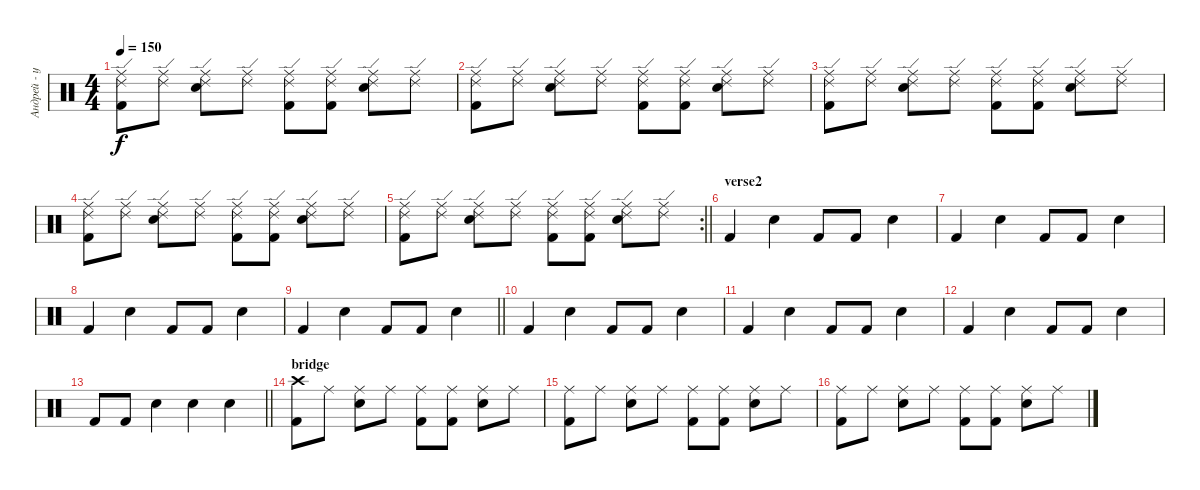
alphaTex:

\track ("Андрей - ударные" "Андрей - у") {instrument percussion}
\staff
\articulation defaults
\ts (4 4)
\tempo 150
\clef neutral
\ks c
("Ride (middle)" "Ride (edge) 2" "Kick (hit) 2").8{dy f} ("Ride (middle)" "Ride (edge) 2").8 ("Ride (middle)" "Ride (edge) 2" "Electric Snare (hit)").8 ("Ride (middle)" "Ride (edge) 2").8 ("Ride (middle)" "Ride (edge) 2" "Kick (hit) 2").8 ("Ride (middle)" "Ride (edge) 2" "Kick (hit) 2").8 ("Ride (middle)" "Ride (edge) 2" "Electric Snare (hit)").8 ("Ride (middle)" "Ride (edge) 2").8 |
("Ride (middle)" "Ride (edge) 2" "Kick (hit) 2").8 ("Ride (middle)" "Ride (edge) 2").8 ("Ride (middle)" "Ride (edge) 2" "Electric Snare (hit)").8 ("Ride (middle)" "Ride (edge) 2").8 ("Ride (middle)" "Ride (edge) 2" "Kick (hit) 2").8 ("Ride (middle)" "Ride (edge) 2" "Kick (hit) 2").8 ("Ride (middle)" "Ride (edge) 2" "Electric Snare (hit)").8 ("Ride (middle)" "Ride (edge) 2").8 |
("Ride (middle)" "Ride (edge) 2" "Kick (hit) 2").8 ("Ride (middle)" "Ride (edge) 2").8 ("Ride (middle)" "Ride (edge) 2" "Electric Snare (hit)").8 ("Ride (middle)" "Ride (edge) 2").8 ("Ride (middle)" "Ride (edge) 2" "Kick (hit) 2").8 ("Ride (middle)" "Ride (edge) 2" "Kick (hit) 2").8 ("Ride (middle)" "Ride (edge) 2" "Electric Snare (hit)").8 ("Ride (middle)" "Ride (edge) 2").8 |
("Ride (middle)" "Ride (edge) 2" "Kick (hit) 2").8 ("Ride (middle)" "Ride (edge) 2").8 ("Ride (middle)" "Ride (edge) 2" "Electric Snare (hit)").8 ("Ride (middle)" "Ride (edge) 2").8 ("Ride (middle)" "Ride (edge) 2" "Kick (hit) 2").8 ("Ride (middle)" "Ride (edge) 2" "Kick (hit) 2").8 ("Ride (middle)" "Ride (edge) 2" "Electric Snare (hit)").8 ("Ride (middle)" "Ride (edge) 2").8 |
\rc 2
\barLineRight lightlight
("Ride (middle)" "Ride (edge) 2" "Kick (hit) 2").8 ("Ride (middle)" "Ride (edge) 2").8 ("Ride (middle)" "Ride (edge) 2" "Electric Snare (hit)").8 ("Ride (middle)" "Ride (edge) 2").8 ("Ride (middle)" "Ride (edge) 2" "Kick (hit) 2").8 ("Ride (middle)" "Ride (edge) 2" "Kick (hit) 2").8 ("Ride (middle)" "Ride (edge) 2" "Electric Snare (hit)").8 ("Ride (middle)" "Ride (edge) 2").8 |
\section ("" "verse2")
"Kick (hit) 2".4 "Electric Snare (hit)".4 "Kick (hit) 2".8 "Kick (hit) 2".8 "Electric Snare (hit)".4 |
"Kick (hit) 2".4 "Electric Snare (hit)".4 "Kick (hit) 2".8 "Kick (hit) 2".8 "Electric Snare (hit)".4 |
"Kick (hit) 2".4 "Electric Snare (hit)".4 "Kick (hit) 2".8 "Kick (hit) 2".8 "Electric Snare (hit)".4 |
\barLineRight lightlight "Kick (hit) 2".4 "Electric Snare (hit)".4 "Kick (hit) 2".8 "Kick (hit) 2".8 "Electric Snare (hit)".4
|
"Kick (hit) 2".4 "Electric Snare (hit)".4 "Kick (hit) 2".8 "Kick (hit) 2".8 "Electric Snare (hit)".4 |
"Kick (hit) 2".4 "Electric Snare (hit)".4 "Kick (hit) 2".8 "Kick (hit) 2".8 "Electric Snare (hit)".4 |
"Kick (hit) 2".4 "Electric Snare (hit)".4 "Kick (hit) 2".8 "Kick (hit) 2".8 "Electric Snare (hit)".4 |
\barLineRight lightlight "Kick (hit) 2".8 "Kick (hit) 2".8 "Electric Snare (hit)".4 "Electric Snare (hit)".4 "Electric Snare (hit)".4
|
\section ("" "bridge")
("Crash high (hit)" "Kick (hit) 2").8 "Ride (middle)".8 ("Ride (middle)" "Electric Snare (hit)").8 "Ride (middle)".8 ("Ride (middle)" "Kick (hit) 2").8 ("Ride (middle)" "Kick (hit) 2").8 ("Ride (middle)" "Electric Snare (hit)").8 "Ride (middle)".8 |
("Ride (middle)" "Kick (hit) 2").8 "Ride (middle)".8 ("Ride (middle)" "Electric Snare (hit)").8 "Ride (middle)".8 ("Ride (middle)" "Kick (hit) 2").8 ("Ride (middle)" "Kick (hit) 2").8 ("Ride (middle)" "Electric Snare (hit)").8 "Ride (middle)".8 |
("Ride (middle)" "Kick (hit) 2").8 "Ride (middle)".8 ("Ride (middle)" "Electric Snare (hit)").8 "Ride (middle)".8 ("Ride (middle)" "Kick (hit) 2").8 ("Ride (middle)" "Kick (hit) 2").8 ("Ride (middle)" "Electric Snare (hit)").8 "Ride (middle)".8
